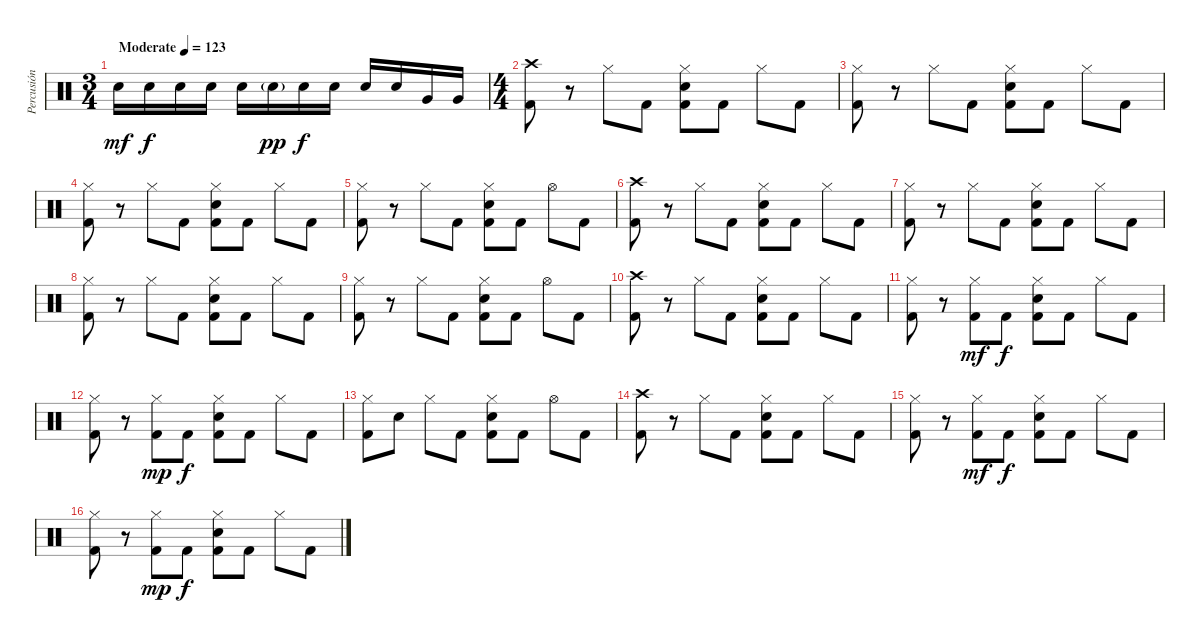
\track ("Percusión" "Percusión") {instrument percussion}
\staff {score}
\articulation defaults
\ts (3 4)
\tempo (123 "Moderate")
\clef neutral
\ks c "Snare (hit) 2".16{dy mf} "Snare (hit) 2".16{dy f} "Snare (hit) 2".16 "Snare (hit) 2".16 "Snare (hit) 2".16 "Snare (hit) 2"{g}.16{dy pp} "Snare (hit) 2".16{dy f} "Snare (hit) 2".16 "Snare (hit) 2".16 "Snare (hit) 2".16 "Very Low Tom (hit)".16 "Very Low Tom (hit)".16
|
\ts (4 4)
("Crash high (hit)" "Kick (hit) 2").8 r.8 "Hi-Hat (closed)".8 "Kick (hit) 2".8 ("Hi-Hat (closed)" "Snare (hit) 2" "Kick (hit) 2").8 "Kick (hit) 2".8 "Hi-Hat (closed)".8 "Kick (hit) 2".8 |
("Hi-Hat (closed)" "Kick (hit) 2").8 r.8 "Hi-Hat (closed)".8 "Kick (hit) 2".8 ("Hi-Hat (closed)" "Snare (hit) 2" "Kick (hit) 2").8 "Kick (hit) 2".8 "Hi-Hat (closed)".8 "Kick (hit) 2".8 |
("Hi-Hat (closed)" "Kick (hit) 2").8 r.8 "Hi-Hat (closed)".8 "Kick (hit) 2".8 ("Hi-Hat (closed)" "Snare (hit) 2" "Kick (hit) 2").8 "Kick (hit) 2".8 "Hi-Hat (closed)".8 "Kick (hit) 2".8 |
("Hi-Hat (closed)" "Kick (hit) 2").8 r.8 "Hi-Hat (closed)".8 "Kick (hit) 2".8 ("Hi-Hat (closed)" "Snare (hit) 2" "Kick (hit) 2").8 "Kick (hit) 2".8 "Hi-Hat (open)".8 "Kick (hit) 2".8 |
("Crash high (hit)" "Kick (hit) 2").8 r.8 "Hi-Hat (closed)".8 "Kick (hit) 2".8 ("Hi-Hat (closed)" "Snare (hit) 2" "Kick (hit) 2").8 "Kick (hit) 2".8 "Hi-Hat (closed)".8 "Kick (hit) 2".8 |
("Hi-Hat (closed)" "Kick (hit) 2").8 r.8 "Hi-Hat (closed)".8 "Kick (hit) 2".8 ("Hi-Hat (closed)" "Snare (hit) 2" "Kick (hit) 2").8 "Kick (hit) 2".8 "Hi-Hat (closed)".8 "Kick (hit) 2".8 |
("Hi-Hat (closed)" "Kick (hit) 2").8 r.8 "Hi-Hat (closed)".8 "Kick (hit) 2".8 ("Hi-Hat (closed)" "Snare (hit) 2" "Kick (hit) 2").8 "Kick (hit) 2".8 "Hi-Hat (closed)".8 "Kick (hit) 2".8 |
("Hi-Hat (closed)" "Kick (hit) 2").8 r.8 "Hi-Hat (closed)".8 "Kick (hit) 2".8 ("Hi-Hat (closed)" "Snare (hit) 2" "Kick (hit) 2").8 "Kick (hit) 2".8 "Hi-Hat (open)".8 "Kick (hit) 2".8 |
("Crash high (hit)" "Kick (hit) 2").8 r.8 "Hi-Hat (closed)".8 "Kick (hit) 2".8 ("Hi-Hat (closed)" "Snare (hit) 2" "Kick (hit) 2").8 "Kick (hit) 2".8 "Hi-Hat (closed)".8 "Kick (hit) 2".8 |
("Hi-Hat (closed)" "Kick (hit) 2").8 r.8 ("Hi-Hat (closed)" "Kick (hit) 2").8{dy mf} "Kick (hit) 2".8{dy f} ("Hi-Hat (closed)" "Snare (hit) 2" "Kick (hit) 2").8 "Kick (hit) 2".8 "Hi-Hat (closed)".8 "Kick (hit) 2".8 |
("Hi-Hat (closed)" "Kick (hit) 2").8 r.8 ("Hi-Hat (closed)" "Kick (hit) 2").8{dy mp} "Kick (hit) 2".8{dy f} ("Hi-Hat (closed)" "Snare (hit) 2" "Kick (hit) 2").8 "Kick (hit) 2".8 "Hi-Hat (closed)".8 "Kick (hit) 2".8 |
("Hi-Hat (closed)" "Kick (hit) 2").8 "Snare (hit) 2".8 "Hi-Hat (closed)".8 "Kick (hit) 2".8 ("Hi-Hat (closed)" "Snare (hit) 2" "Kick (hit) 2").8 "Kick (hit) 2".8 "Hi-Hat (open)".8 "Kick (hit) 2".8 |
("Crash high (hit)" "Kick (hit) 2").8 r.8 "Hi-Hat (closed)".8 "Kick (hit) 2".8 ("Hi-Hat (closed)" "Snare (hit) 2" "Kick (hit) 2").8 "Kick (hit) 2".8 "Hi-Hat (closed)".8 "Kick (hit) 2".8 |
("Hi-Hat (closed)" "Kick (hit) 2").8 r.8 ("Hi-Hat (closed)" "Kick (hit) 2").8{dy mf} "Kick (hit) 2".8{dy f} ("Hi-Hat (closed)" "Snare (hit) 2" "Kick (hit) 2").8 "Kick (hit) 2".8 "Hi-Hat (closed)".8 "Kick (hit) 2".8 |
("Hi-Hat (closed)" "Kick (hit) 2").8 r.8 ("Hi-Hat (closed)" "Kick (hit) 2").8{dy mp} "Kick (hit) 2".8{dy f} ("Hi-Hat (closed)" "Snare (hit) 2" "Kick (hit) 2").8 "Kick (hit) 2".8 "Hi-Hat (closed)".8 "Kick (hit) 2".8
